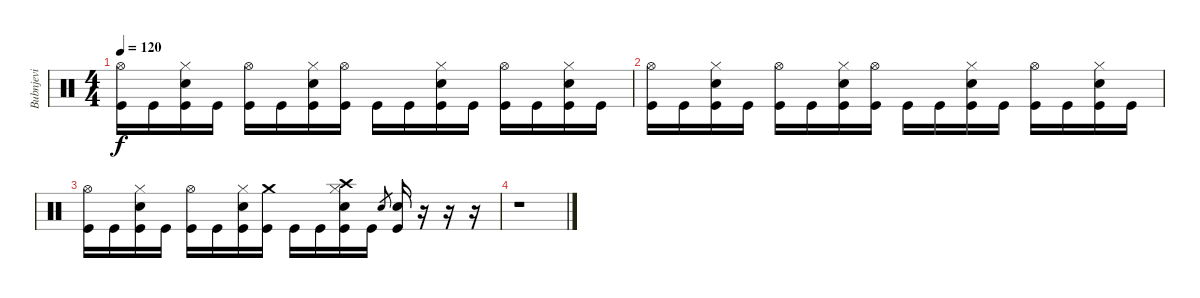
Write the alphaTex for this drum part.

\track ("Bubnjevi" "Bubnjevi") {instrument percussion}
\staff {score}
\articulation defaults
\ts (4 4)
\tempo 120
\clef neutral
\ks c
("Hi-Hat (open)" "Kick (hit)").16{dy f} "Kick (hit)".16 ("Electric Snare (hit)" "Hi-Hat (closed)" "Kick (hit)").16 "Kick (hit)".16 ("Hi-Hat (open)" "Kick (hit)").16 "Kick (hit)".16 ("Electric Snare (hit)" "Hi-Hat (closed)" "Kick (hit)").16 ("Hi-Hat (open)" "Kick (hit)").16 "Kick (hit)".16 "Kick (hit)".16 ("Electric Snare (hit)" "Hi-Hat (closed)" "Kick (hit)").16 "Kick (hit)".16 ("Hi-Hat (open)" "Kick (hit)").16 "Kick (hit)".16 ("Electric Snare (hit)" "Hi-Hat (closed)" "Kick (hit)").16 "Kick (hit)".16 |
("Hi-Hat (open)" "Kick (hit)").16 "Kick (hit)".16 ("Electric Snare (hit)" "Hi-Hat (closed)" "Kick (hit)").16 "Kick (hit)".16 ("Hi-Hat (open)" "Kick (hit)").16 "Kick (hit)".16 ("Electric Snare (hit)" "Hi-Hat (closed)" "Kick (hit)").16 ("Hi-Hat (open)" "Kick (hit)").16 "Kick (hit)".16 "Kick (hit)".16 ("Electric Snare (hit)" "Hi-Hat (closed)" "Kick (hit)").16 "Kick (hit)".16 ("Hi-Hat (open)" "Kick (hit)").16 "Kick (hit)".16 ("Electric Snare (hit)" "Hi-Hat (closed)" "Kick (hit)").16 "Kick (hit)".16 |
("Hi-Hat (open)" "Kick (hit)").16 "Kick (hit)".16 ("Electric Snare (hit)" "Hi-Hat (closed)" "Kick (hit)").16 "Kick (hit)".16 ("Hi-Hat (open)" "Kick (hit)").16 "Kick (hit)".16 ("Electric Snare (hit)" "Hi-Hat (closed)" "Kick (hit)").16 ("Crash medium (hit)" "Kick (hit)").16 "Kick (hit)".16 "Kick (hit)".16 ("Crash high (hit)" "Electric Snare (hit)" "Hi-Hat (closed)" "Kick (hit)").16 "Kick (hit)".16 "Electric Snare (hit)".8{gr} ("Electric Snare (hit)" "Kick (hit)").16 r.16 r.16 r.16 |
r.1
